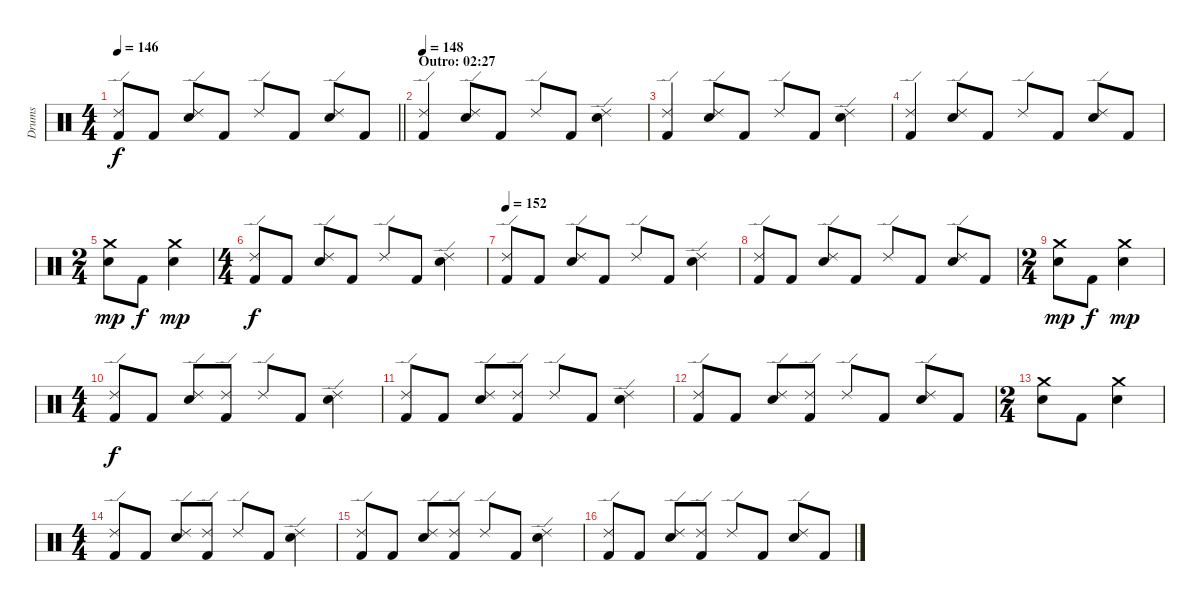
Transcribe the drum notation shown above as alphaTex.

\track ("Drums" "Drums") {instrument percussion}
\staff {score}
\articulation defaults
\ts (4 4)
\tempo 146
\clef neutral
\barLineRight lightlight
\ks c
("Ride (edge) 2" "Kick (hit) 2").8{dy f} "Kick (hit) 2".8 ("Ride (edge) 2" "Electric Snare (hit)").8 "Kick (hit) 2".8 "Ride (edge) 2".8 "Kick (hit) 2".8 ("Ride (edge) 2" "Electric Snare (hit)").8 "Kick (hit) 2".8 |
\section ("" "Outro: 02:27")
\tempo 148
("Ride (edge) 2" "Kick (hit) 2").4 ("Ride (edge) 2" "Electric Snare (hit)").8 "Kick (hit) 2".8 "Ride (edge) 2".8 "Kick (hit) 2".8 ("Ride (edge) 2" "Electric Snare (hit)").4 |
("Ride (edge) 2" "Kick (hit) 2").4 ("Ride (edge) 2" "Electric Snare (hit)").8 "Kick (hit) 2".8 "Ride (edge) 2".8 "Kick (hit) 2".8 ("Ride (edge) 2" "Electric Snare (hit)").4 |
("Ride (edge) 2" "Kick (hit) 2").4 ("Ride (edge) 2" "Electric Snare (hit)").8 "Kick (hit) 2".8 "Ride (edge) 2".8 "Kick (hit) 2".8 ("Ride (edge) 2" "Electric Snare (hit)").8 "Kick (hit) 2".8 |
\ts (2 4)
("Crash medium (hit)" "Electric Snare (hit)").8{dy mp} "Kick (hit) 2".8{dy f} ("Crash medium (hit)" "Electric Snare (hit)").4{dy mp} |
\ts (4 4)
("Ride (edge) 2" "Kick (hit) 2").8{dy f} "Kick (hit) 2".8 ("Ride (edge) 2" "Electric Snare (hit)").8 "Kick (hit) 2".8 "Ride (edge) 2".8 "Kick (hit) 2".8 ("Ride (edge) 2" "Electric Snare (hit)").4 |
\tempo 152
("Ride (edge) 2" "Kick (hit) 2").8 "Kick (hit) 2".8 ("Ride (edge) 2" "Electric Snare (hit)").8 "Kick (hit) 2".8 "Ride (edge) 2".8 "Kick (hit) 2".8 ("Ride (edge) 2" "Electric Snare (hit)").4 |
("Ride (edge) 2" "Kick (hit) 2").8 "Kick (hit) 2".8 ("Ride (edge) 2" "Electric Snare (hit)").8 "Kick (hit) 2".8 "Ride (edge) 2".8 "Kick (hit) 2".8 ("Ride (edge) 2" "Electric Snare (hit)").8 "Kick (hit) 2".8 |
\ts (2 4)
("Crash medium (hit)" "Electric Snare (hit)").8{dy mp} "Kick (hit) 2".8{dy f} ("Crash medium (hit)" "Electric Snare (hit)").4{dy mp} |
\ts (4 4)
("Ride (edge) 2" "Kick (hit) 2").8{dy f} "Kick (hit) 2".8 ("Ride (edge) 2" "Electric Snare (hit)").8 ("Ride (edge) 2" "Kick (hit) 2").8 "Ride (edge) 2".8 "Kick (hit) 2".8 ("Ride (edge) 2" "Electric Snare (hit)").4 |
("Ride (edge) 2" "Kick (hit) 2").8 "Kick (hit) 2".8 ("Ride (edge) 2" "Electric Snare (hit)").8 ("Ride (edge) 2" "Kick (hit) 2").8 "Ride (edge) 2".8 "Kick (hit) 2".8 ("Ride (edge) 2" "Electric Snare (hit)").4 |
("Ride (edge) 2" "Kick (hit) 2").8 "Kick (hit) 2".8 ("Ride (edge) 2" "Electric Snare (hit)").8 ("Ride (edge) 2" "Kick (hit) 2").8 "Ride (edge) 2".8 "Kick (hit) 2".8 ("Ride (edge) 2" "Electric Snare (hit)").8 "Kick (hit) 2".8 |
\ts (2 4)
("Crash medium (hit)" "Electric Snare (hit)").8 "Kick (hit) 2".8 ("Crash medium (hit)" "Electric Snare (hit)").4 |
\ts (4 4)
("Ride (edge) 2" "Kick (hit) 2").8 "Kick (hit) 2".8 ("Ride (edge) 2" "Electric Snare (hit)").8 ("Ride (edge) 2" "Kick (hit) 2").8 "Ride (edge) 2".8 "Kick (hit) 2".8 ("Ride (edge) 2" "Electric Snare (hit)").4 |
("Ride (edge) 2" "Kick (hit) 2").8 "Kick (hit) 2".8 ("Ride (edge) 2" "Electric Snare (hit)").8 ("Ride (edge) 2" "Kick (hit) 2").8 "Ride (edge) 2".8 "Kick (hit) 2".8 ("Ride (edge) 2" "Electric Snare (hit)").4 |
("Ride (edge) 2" "Kick (hit) 2").8 "Kick (hit) 2".8 ("Ride (edge) 2" "Electric Snare (hit)").8 ("Ride (edge) 2" "Kick (hit) 2").8 "Ride (edge) 2".8 "Kick (hit) 2".8 ("Ride (edge) 2" "Electric Snare (hit)").8 "Kick (hit) 2".8
